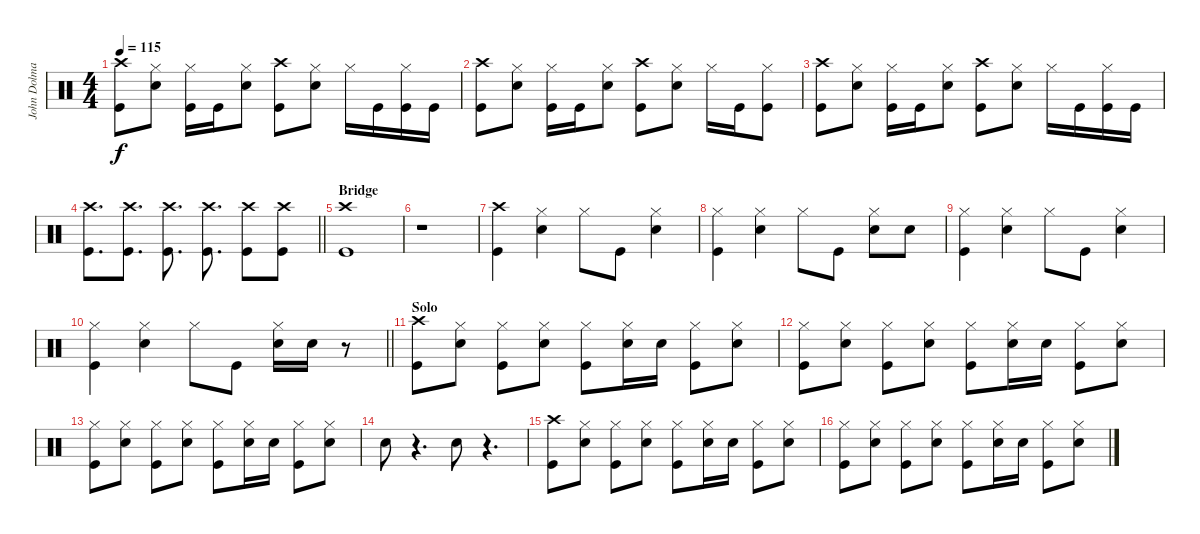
\track ("John Dolmayan" "John Dolma") {instrument percussion}
\staff {score}
\articulation defaults
\ts (4 4)
\tempo 115
\clef neutral
\ks c
("Crash high (hit)" "Kick (hit)").8{dy f} ("Hi-Hat (closed)" "Snare (hit) 2").8 ("Hi-Hat (closed)" "Kick (hit)").16 "Kick (hit)".16 ("Hi-Hat (closed)" "Snare (hit) 2").8 ("Crash high (hit)" "Kick (hit)").8 ("Hi-Hat (closed)" "Snare (hit) 2").8 "Hi-Hat (closed)".16 "Kick (hit)".16 ("Hi-Hat (closed)" "Kick (hit)").16 "Kick (hit)".16 |
("Crash high (hit)" "Kick (hit)").8 ("Hi-Hat (closed)" "Snare (hit) 2").8 ("Hi-Hat (closed)" "Kick (hit)").16 "Kick (hit)".16 ("Hi-Hat (closed)" "Snare (hit) 2").8 ("Crash high (hit)" "Kick (hit)").8 ("Hi-Hat (closed)" "Snare (hit) 2").8 "Hi-Hat (closed)".16 "Kick (hit)".16 ("Hi-Hat (closed)" "Kick (hit)").8 |
("Crash high (hit)" "Kick (hit)").8 ("Hi-Hat (closed)" "Snare (hit) 2").8 ("Hi-Hat (closed)" "Kick (hit)").16 "Kick (hit)".16 ("Hi-Hat (closed)" "Snare (hit) 2").8 ("Crash high (hit)" "Kick (hit)").8 ("Hi-Hat (closed)" "Snare (hit) 2").8 "Hi-Hat (closed)".16 "Kick (hit)".16 ("Hi-Hat (closed)" "Kick (hit)").16 "Kick (hit)".16 |
\barLineRight lightlight
("Crash high (hit)" "Kick (hit)").8{d} ("Crash high (hit)" "Kick (hit)").8{d} ("Crash high (hit)" "Kick (hit)").8{d} ("Crash high (hit)" "Kick (hit)").8{d} ("Crash high (hit)" "Kick (hit)").8 ("Crash high (hit)" "Kick (hit)").8 |
\section ("" "Bridge")
("Crash high (hit)" "Kick (hit)").1 |
r.1 |
("Crash high (hit)" "Kick (hit)").4 ("Hi-Hat (closed)" "Snare (hit) 2").4 "Hi-Hat (closed)".8 "Kick (hit)".8 ("Hi-Hat (closed)" "Snare (hit) 2").4 |
("Hi-Hat (closed)" "Kick (hit)").4 ("Hi-Hat (closed)" "Snare (hit) 2").4 "Hi-Hat (closed)".8 "Kick (hit)".8 ("Hi-Hat (closed)" "Snare (hit) 2").8 "Snare (hit) 2".8 |
("Hi-Hat (closed)" "Kick (hit)").4 ("Hi-Hat (closed)" "Snare (hit) 2").4 "Hi-Hat (closed)".8 "Kick (hit)".8 ("Hi-Hat (closed)" "Snare (hit) 2").4 |
\barLineRight lightlight
("Hi-Hat (closed)" "Kick (hit)").4 ("Hi-Hat (closed)" "Snare (hit) 2").4 "Hi-Hat (closed)".8 "Kick (hit)".8 ("Hi-Hat (closed)" "Snare (hit) 2").16 "Snare (hit) 2".16 r.8 |
\section ("" "Solo")
("Crash high (hit)" "Kick (hit)").8 ("Hi-Hat (closed)" "Snare (hit) 2").8 ("Hi-Hat (closed)" "Kick (hit)").8 ("Hi-Hat (closed)" "Snare (hit) 2").8 ("Hi-Hat (closed)" "Kick (hit)").8 ("Hi-Hat (closed)" "Snare (hit) 2").16 "Snare (hit) 2".16 ("Hi-Hat (closed)" "Kick (hit)").8 ("Hi-Hat (closed)" "Snare (hit) 2").8 |
("Hi-Hat (closed)" "Kick (hit)").8 ("Hi-Hat (closed)" "Snare (hit) 2").8 ("Hi-Hat (closed)" "Kick (hit)").8 ("Hi-Hat (closed)" "Snare (hit) 2").8 ("Hi-Hat (closed)" "Kick (hit)").8 ("Hi-Hat (closed)" "Snare (hit) 2").16 "Snare (hit) 2".16 ("Hi-Hat (closed)" "Kick (hit)").8 ("Hi-Hat (closed)" "Snare (hit) 2").8 |
("Hi-Hat (closed)" "Kick (hit)").8 ("Hi-Hat (closed)" "Snare (hit) 2").8 ("Hi-Hat (closed)" "Kick (hit)").8 ("Hi-Hat (closed)" "Snare (hit) 2").8 ("Hi-Hat (closed)" "Kick (hit)").8 ("Hi-Hat (closed)" "Snare (hit) 2").16 "Snare (hit) 2".16 ("Hi-Hat (closed)" "Kick (hit)").8 ("Hi-Hat (closed)" "Snare (hit) 2").8 |
"Snare (hit) 2".8 r.4{d} "Snare (hit) 2".8 r.4{d} |
("Crash high (hit)" "Kick (hit)").8 ("Hi-Hat (closed)" "Snare (hit) 2").8 ("Hi-Hat (closed)" "Kick (hit)").8 ("Hi-Hat (closed)" "Snare (hit) 2").8 ("Hi-Hat (closed)" "Kick (hit)").8 ("Hi-Hat (closed)" "Snare (hit) 2").16 "Snare (hit) 2".16 ("Hi-Hat (closed)" "Kick (hit)").8 ("Hi-Hat (closed)" "Snare (hit) 2").8 |
("Hi-Hat (closed)" "Kick (hit)").8 ("Hi-Hat (closed)" "Snare (hit) 2").8 ("Hi-Hat (closed)" "Kick (hit)").8 ("Hi-Hat (closed)" "Snare (hit) 2").8 ("Hi-Hat (closed)" "Kick (hit)").8 ("Hi-Hat (closed)" "Snare (hit) 2").16 "Snare (hit) 2".16 ("Hi-Hat (closed)" "Kick (hit)").8 ("Hi-Hat (closed)" "Snare (hit) 2").8
